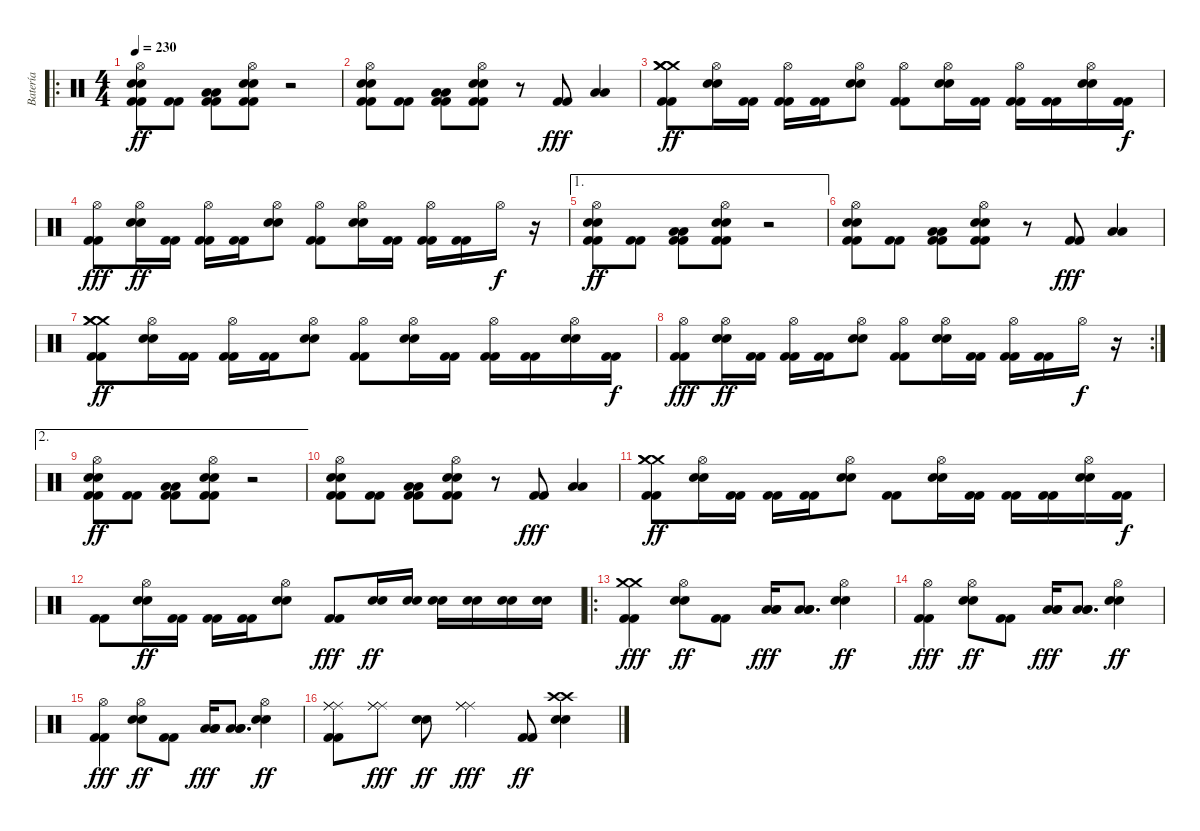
\track ("Batería" "Batería") {instrument percussion}
\staff {score}
\articulation defaults
\ro
\ts (4 4)
\tempo 230
\clef neutral
\ks c
("Hi-Hat (open)" "Electric Snare (hit)" "Electric Snare (hit)" "Kick (hit) 2" "Kick (hit) 2").8{dy ff} ("Kick (hit) 2" "Kick (hit) 2").8 ("Low Tom (hit)" "Low Tom (hit)" "Kick (hit) 2" "Kick (hit) 2").8 ("Hi-Hat (open)" "Electric Snare (hit)" "Electric Snare (hit)" "Kick (hit) 2" "Kick (hit) 2").8 r.2 |
("Hi-Hat (open)" "Electric Snare (hit)" "Electric Snare (hit)" "Kick (hit) 2" "Kick (hit) 2").8 ("Kick (hit) 2" "Kick (hit) 2").8 ("Low Tom (hit)" "Low Tom (hit)" "Kick (hit) 2" "Kick (hit) 2").8 ("Hi-Hat (open)" "Electric Snare (hit)" "Electric Snare (hit)" "Kick (hit) 2" "Kick (hit) 2").8 r.8 ("Kick (hit) 2" "Kick (hit) 2").8{dy fff} ("Low Tom (hit)" "Low Tom (hit)").4 |
("Crash medium (hit)" "Crash medium (hit)" "Crash medium (hit)" "Kick (hit) 2" "Kick (hit) 2").8{dy ff} ("Hi-Hat (open)" "Electric Snare (hit)" "Electric Snare (hit)").16 ("Kick (hit) 2" "Kick (hit) 2").16 ("Hi-Hat (open)" "Kick (hit) 2" "Kick (hit) 2").16 ("Kick (hit) 2" "Kick (hit) 2").16 ("Hi-Hat (open)" "Electric Snare (hit)" "Electric Snare (hit)").8 ("Hi-Hat (open)" "Kick (hit) 2" "Kick (hit) 2").8 ("Hi-Hat (open)" "Electric Snare (hit)" "Electric Snare (hit)").16 ("Kick (hit) 2" "Kick (hit) 2").16 ("Hi-Hat (open)" "Kick (hit) 2" "Kick (hit) 2").16 ("Kick (hit) 2" "Kick (hit) 2").16 ("Hi-Hat (open)" "Electric Snare (hit)" "Electric Snare (hit)").16 ("Kick (hit) 2" "Kick (hit) 2").16{dy f} |
("Hi-Hat (open)" "Kick (hit) 2" "Kick (hit) 2").8{dy fff} ("Hi-Hat (open)" "Electric Snare (hit)" "Electric Snare (hit)").16{dy ff} ("Kick (hit) 2" "Kick (hit) 2").16 ("Hi-Hat (open)" "Kick (hit) 2" "Kick (hit) 2").16 ("Kick (hit) 2" "Kick (hit) 2").16 ("Hi-Hat (open)" "Electric Snare (hit)" "Electric Snare (hit)").8 ("Hi-Hat (open)" "Kick (hit) 2" "Kick (hit) 2").8 ("Hi-Hat (open)" "Electric Snare (hit)" "Electric Snare (hit)").16 ("Kick (hit) 2" "Kick (hit) 2").16 ("Hi-Hat (open)" "Kick (hit) 2" "Kick (hit) 2").16 ("Kick (hit) 2" "Kick (hit) 2").16 "Hi-Hat (open)".16{dy f} r.16 |
\ae 1
("Hi-Hat (open)" "Electric Snare (hit)" "Electric Snare (hit)" "Kick (hit) 2" "Kick (hit) 2").8{dy ff} ("Kick (hit) 2" "Kick (hit) 2").8 ("Low Tom (hit)" "Low Tom (hit)" "Kick (hit) 2" "Kick (hit) 2").8 ("Hi-Hat (open)" "Electric Snare (hit)" "Electric Snare (hit)" "Kick (hit) 2" "Kick (hit) 2").8 r.2 |
("Hi-Hat (open)" "Electric Snare (hit)" "Electric Snare (hit)" "Kick (hit) 2" "Kick (hit) 2").8 ("Kick (hit) 2" "Kick (hit) 2").8 ("Low Tom (hit)" "Low Tom (hit)" "Kick (hit) 2" "Kick (hit) 2").8 ("Hi-Hat (open)" "Electric Snare (hit)" "Electric Snare (hit)" "Kick (hit) 2" "Kick (hit) 2").8 r.8 ("Kick (hit) 2" "Kick (hit) 2").8{dy fff} ("Low Tom (hit)" "Low Tom (hit)").4 |
("Crash medium (hit)" "Crash medium (hit)" "Crash medium (hit)" "Kick (hit) 2" "Kick (hit) 2").8{dy ff} ("Hi-Hat (open)" "Electric Snare (hit)" "Electric Snare (hit)").16 ("Kick (hit) 2" "Kick (hit) 2").16 ("Hi-Hat (open)" "Kick (hit) 2" "Kick (hit) 2").16 ("Kick (hit) 2" "Kick (hit) 2").16 ("Hi-Hat (open)" "Electric Snare (hit)" "Electric Snare (hit)").8 ("Hi-Hat (open)" "Kick (hit) 2" "Kick (hit) 2").8 ("Hi-Hat (open)" "Electric Snare (hit)" "Electric Snare (hit)").16 ("Kick (hit) 2" "Kick (hit) 2").16 ("Hi-Hat (open)" "Kick (hit) 2" "Kick (hit) 2").16 ("Kick (hit) 2" "Kick (hit) 2").16 ("Hi-Hat (open)" "Electric Snare (hit)" "Electric Snare (hit)").16 ("Kick (hit) 2" "Kick (hit) 2").16{dy f} |
\rc 2
("Hi-Hat (open)" "Kick (hit) 2" "Kick (hit) 2").8{dy fff} ("Hi-Hat (open)" "Electric Snare (hit)" "Electric Snare (hit)").16{dy ff} ("Kick (hit) 2" "Kick (hit) 2").16 ("Hi-Hat (open)" "Kick (hit) 2" "Kick (hit) 2").16 ("Kick (hit) 2" "Kick (hit) 2").16 ("Hi-Hat (open)" "Electric Snare (hit)" "Electric Snare (hit)").8 ("Hi-Hat (open)" "Kick (hit) 2" "Kick (hit) 2").8 ("Hi-Hat (open)" "Electric Snare (hit)" "Electric Snare (hit)").16 ("Kick (hit) 2" "Kick (hit) 2").16 ("Hi-Hat (open)" "Kick (hit) 2" "Kick (hit) 2").16 ("Kick (hit) 2" "Kick (hit) 2").16 "Hi-Hat (open)".16{dy f} r.16 |
\ae 2
("Hi-Hat (open)" "Electric Snare (hit)" "Electric Snare (hit)" "Kick (hit) 2" "Kick (hit) 2").8{dy ff} ("Kick (hit) 2" "Kick (hit) 2").8 ("Low Tom (hit)" "Low Tom (hit)" "Kick (hit) 2" "Kick (hit) 2").8 ("Hi-Hat (open)" "Electric Snare (hit)" "Electric Snare (hit)" "Kick (hit) 2" "Kick (hit) 2").8 r.2 |
("Hi-Hat (open)" "Electric Snare (hit)" "Electric Snare (hit)" "Kick (hit) 2" "Kick (hit) 2").8 ("Kick (hit) 2" "Kick (hit) 2").8 ("Low Tom (hit)" "Low Tom (hit)" "Kick (hit) 2" "Kick (hit) 2").8 ("Hi-Hat (open)" "Electric Snare (hit)" "Electric Snare (hit)" "Kick (hit) 2" "Kick (hit) 2").8 r.8 ("Kick (hit) 2" "Kick (hit) 2").8{dy fff} ("Low Tom (hit)" "Low Tom (hit)").4 |
("Crash medium (hit)" "Crash medium (hit)" "Crash medium (hit)" "Kick (hit) 2" "Kick (hit) 2").8{dy ff} ("Hi-Hat (open)" "Electric Snare (hit)" "Electric Snare (hit)").16 ("Kick (hit) 2" "Kick (hit) 2").16 ("Kick (hit) 2" "Kick (hit) 2").16 ("Kick (hit) 2" "Kick (hit) 2").16 ("Hi-Hat (open)" "Electric Snare (hit)" "Electric Snare (hit)").8 ("Kick (hit) 2" "Kick (hit) 2").8 ("Hi-Hat (open)" "Electric Snare (hit)" "Electric Snare (hit)").16 ("Kick (hit) 2" "Kick (hit) 2").16 ("Kick (hit) 2" "Kick (hit) 2").16 ("Kick (hit) 2" "Kick (hit) 2").16 ("Hi-Hat (open)" "Electric Snare (hit)" "Electric Snare (hit)").16 ("Kick (hit) 2" "Kick (hit) 2").16{dy f} |
("Kick (hit) 2" "Kick (hit) 2").8 ("Hi-Hat (open)" "Electric Snare (hit)" "Electric Snare (hit)").16{dy ff} ("Kick (hit) 2" "Kick (hit) 2").16 ("Kick (hit) 2" "Kick (hit) 2").16 ("Kick (hit) 2" "Kick (hit) 2").16 ("Hi-Hat (open)" "Electric Snare (hit)" "Electric Snare (hit)").8 ("Kick (hit) 2" "Kick (hit) 2").8{dy fff} ("Electric Snare (hit)" "Electric Snare (hit)").16{dy ff} ("Electric Snare (hit)" "Electric Snare (hit)").16 ("Electric Snare (hit)" "Electric Snare (hit)").16 ("Electric Snare (hit)" "Electric Snare (hit)").16 ("Electric Snare (hit)" "Electric Snare (hit)").16 ("Electric Snare (hit)" "Electric Snare (hit)").16 |
\ro
("Crash medium (hit)" "Crash medium (hit)" "Kick (hit) 2" "Kick (hit) 2").4{dy fff} ("Hi-Hat (open)" "Electric Snare (hit)" "Electric Snare (hit)").8{dy ff} ("Kick (hit) 2" "Kick (hit) 2").8 ("Low Tom (hit)" "Low Floor Tom (hit)" "Low Floor Tom (hit)").16{dy fff} ("Low Tom (hit)" "Low Floor Tom (hit)" "Low Floor Tom (hit)").8{d} ("Hi-Hat (open)" "Electric Snare (hit)" "Electric Snare (hit)").4{dy ff} |
("Hi-Hat (open)" "Kick (hit) 2" "Kick (hit) 2").4{dy fff} ("Hi-Hat (open)" "Electric Snare (hit)" "Electric Snare (hit)").8{dy ff} ("Kick (hit) 2" "Kick (hit) 2").8 ("Low Tom (hit)" "Low Floor Tom (hit)" "Low Floor Tom (hit)").16{dy fff} ("Low Tom (hit)" "Low Floor Tom (hit)" "Low Floor Tom (hit)").8{d} ("Hi-Hat (open)" "Electric Snare (hit)" "Electric Snare (hit)").4{dy ff} |
("Hi-Hat (open)" "Kick (hit) 2" "Kick (hit) 2").4{dy fff} ("Hi-Hat (open)" "Electric Snare (hit)" "Electric Snare (hit)").8{dy ff} ("Kick (hit) 2" "Kick (hit) 2").8 ("Low Tom (hit)" "Low Floor Tom (hit)" "Low Floor Tom (hit)").16{dy fff} ("Low Tom (hit)" "Low Floor Tom (hit)" "Low Floor Tom (hit)").8{d} ("Hi-Hat (open)" "Electric Snare (hit)" "Electric Snare (hit)").4{dy ff} |
("Ride (middle)" "Ride (middle)" "Ride (middle)" "Kick (hit) 2" "Kick (hit) 2").8 ("Ride (middle)" "Ride (middle)" "Ride (middle)").8{dy fff} ("Electric Snare (hit)" "Electric Snare (hit)").8{dy ff} ("Ride (middle)" "Ride (middle)" "Ride (middle)").4{dy fff} ("Kick (hit) 2" "Kick (hit) 2").8{dy ff} ("Crash high (hit)" "Crash high (hit)" "Electric Snare (hit)" "Electric Snare (hit)").4
